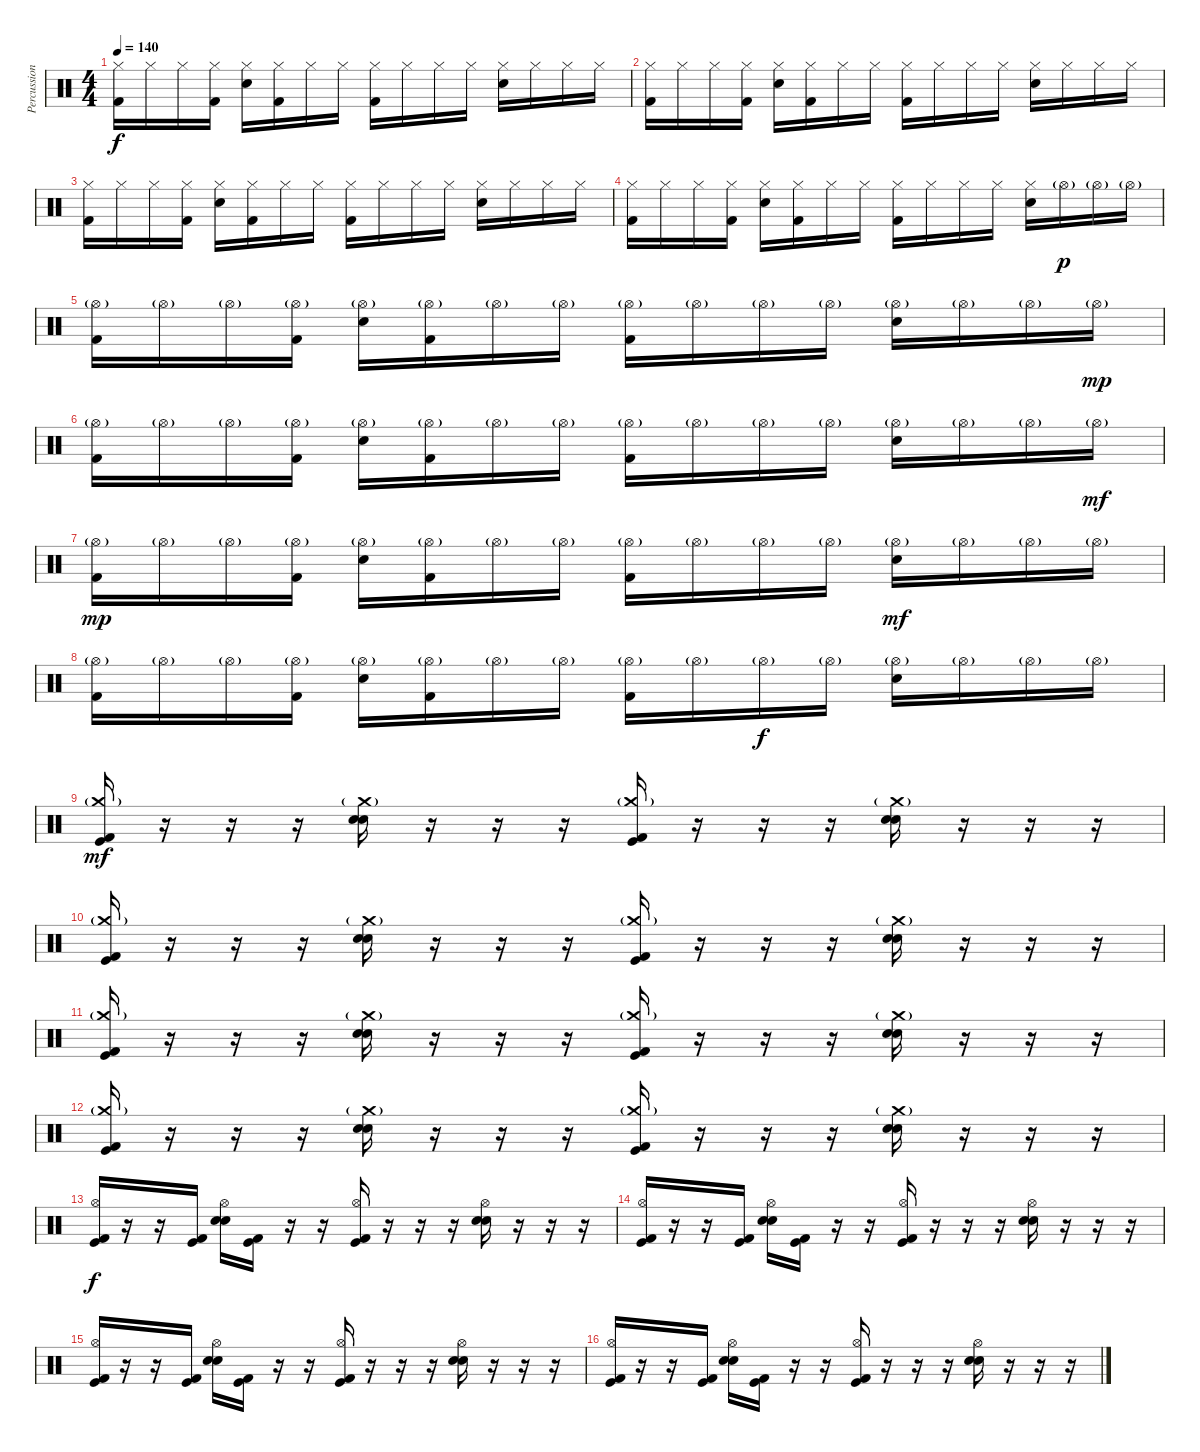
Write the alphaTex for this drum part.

\track ("Percussion" "Percussion") {instrument percussion}
\staff {score}
\articulation defaults
\ts (4 4)
\tempo 140
\clef neutral
\ks c
("Hi-Hat (closed)" "Kick (hit) 2").16{dy f} "Hi-Hat (closed)".16 "Hi-Hat (closed)".16 ("Hi-Hat (closed)" "Kick (hit) 2").16 ("Hi-Hat (closed)" "Electric Snare (hit)").16 ("Hi-Hat (closed)" "Kick (hit) 2").16 "Hi-Hat (closed)".16 "Hi-Hat (closed)".16 ("Hi-Hat (closed)" "Kick (hit) 2").16 "Hi-Hat (closed)".16 "Hi-Hat (closed)".16 "Hi-Hat (closed)".16 ("Hi-Hat (closed)" "Electric Snare (hit)").16 "Hi-Hat (closed)".16 "Hi-Hat (closed)".16 "Hi-Hat (closed)".16 |
("Hi-Hat (closed)" "Kick (hit) 2").16 "Hi-Hat (closed)".16 "Hi-Hat (closed)".16 ("Hi-Hat (closed)" "Kick (hit) 2").16 ("Hi-Hat (closed)" "Electric Snare (hit)").16 ("Hi-Hat (closed)" "Kick (hit) 2").16 "Hi-Hat (closed)".16 "Hi-Hat (closed)".16 ("Hi-Hat (closed)" "Kick (hit) 2").16 "Hi-Hat (closed)".16 "Hi-Hat (closed)".16 "Hi-Hat (closed)".16 ("Hi-Hat (closed)" "Electric Snare (hit)").16 "Hi-Hat (closed)".16 "Hi-Hat (closed)".16 "Hi-Hat (closed)".16 |
("Hi-Hat (closed)" "Kick (hit) 2").16 "Hi-Hat (closed)".16 "Hi-Hat (closed)".16 ("Hi-Hat (closed)" "Kick (hit) 2").16 ("Hi-Hat (closed)" "Electric Snare (hit)").16 ("Hi-Hat (closed)" "Kick (hit) 2").16 "Hi-Hat (closed)".16 "Hi-Hat (closed)".16 ("Hi-Hat (closed)" "Kick (hit) 2").16 "Hi-Hat (closed)".16 "Hi-Hat (closed)".16 "Hi-Hat (closed)".16 ("Hi-Hat (closed)" "Electric Snare (hit)").16 "Hi-Hat (closed)".16 "Hi-Hat (closed)".16 "Hi-Hat (closed)".16 |
("Hi-Hat (closed)" "Kick (hit) 2").16 "Hi-Hat (closed)".16 "Hi-Hat (closed)".16 ("Hi-Hat (closed)" "Kick (hit) 2").16 ("Hi-Hat (closed)" "Electric Snare (hit)").16 ("Hi-Hat (closed)" "Kick (hit) 2").16 "Hi-Hat (closed)".16 "Hi-Hat (closed)".16 ("Hi-Hat (closed)" "Kick (hit) 2").16 "Hi-Hat (closed)".16 "Hi-Hat (closed)".16 "Hi-Hat (closed)".16 ("Hi-Hat (closed)" "Electric Snare (hit)").16 "Hi-Hat (open)"{g}.16{dy p} "Hi-Hat (open)"{g}.16 "Hi-Hat (open)"{g}.16 |
("Hi-Hat (open)"{g} "Kick (hit) 2").16 "Hi-Hat (open)"{g}.16 "Hi-Hat (open)"{g}.16 ("Hi-Hat (open)"{g} "Kick (hit) 2").16 ("Hi-Hat (open)"{g} "Electric Snare (hit)").16 ("Hi-Hat (open)"{g} "Kick (hit) 2").16 "Hi-Hat (open)"{g}.16 "Hi-Hat (open)"{g}.16 ("Hi-Hat (open)"{g} "Kick (hit) 2").16 "Hi-Hat (open)"{g}.16 "Hi-Hat (open)"{g}.16 "Hi-Hat (open)"{g}.16 ("Hi-Hat (open)"{g} "Electric Snare (hit)").16 "Hi-Hat (open)"{g}.16 "Hi-Hat (open)"{g}.16 "Hi-Hat (open)"{g}.16{dy mp} |
("Hi-Hat (open)"{g} "Kick (hit) 2").16 "Hi-Hat (open)"{g}.16 "Hi-Hat (open)"{g}.16 ("Hi-Hat (open)"{g} "Kick (hit) 2").16 ("Hi-Hat (open)"{g} "Electric Snare (hit)").16 ("Hi-Hat (open)"{g} "Kick (hit) 2").16 "Hi-Hat (open)"{g}.16 "Hi-Hat (open)"{g}.16 ("Hi-Hat (open)"{g} "Kick (hit) 2").16 "Hi-Hat (open)"{g}.16 "Hi-Hat (open)"{g}.16 "Hi-Hat (open)"{g}.16 ("Hi-Hat (open)"{g} "Electric Snare (hit)").16 "Hi-Hat (open)"{g}.16 "Hi-Hat (open)"{g}.16 "Hi-Hat (open)"{g}.16{dy mf} |
("Hi-Hat (open)"{g} "Kick (hit) 2").16{dy mp} "Hi-Hat (open)"{g}.16 "Hi-Hat (open)"{g}.16 ("Hi-Hat (open)"{g} "Kick (hit) 2").16 ("Hi-Hat (open)"{g} "Electric Snare (hit)").16 ("Hi-Hat (open)"{g} "Kick (hit) 2").16 "Hi-Hat (open)"{g}.16 "Hi-Hat (open)"{g}.16 ("Hi-Hat (open)"{g} "Kick (hit) 2").16 "Hi-Hat (open)"{g}.16 "Hi-Hat (open)"{g}.16 "Hi-Hat (open)"{g}.16 ("Hi-Hat (open)"{g} "Electric Snare (hit)").16{dy mf} "Hi-Hat (open)"{g}.16 "Hi-Hat (open)"{g}.16 "Hi-Hat (open)"{g}.16 |
("Hi-Hat (open)"{g} "Kick (hit) 2").16 "Hi-Hat (open)"{g}.16 "Hi-Hat (open)"{g}.16 ("Hi-Hat (open)"{g} "Kick (hit) 2").16 ("Hi-Hat (open)"{g} "Electric Snare (hit)").16 ("Hi-Hat (open)"{g} "Kick (hit) 2").16 "Hi-Hat (open)"{g}.16 "Hi-Hat (open)"{g}.16 ("Hi-Hat (open)"{g} "Kick (hit) 2").16 "Hi-Hat (open)"{g}.16 "Hi-Hat (open)"{g}.16{dy f} "Hi-Hat (open)"{g}.16 ("Hi-Hat (open)"{g} "Electric Snare (hit)").16 "Hi-Hat (open)"{g}.16 "Hi-Hat (open)"{g}.16 "Hi-Hat (open)"{g}.16 |
("Crash medium (hit)"{g} "Kick (hit)" "Kick (hit) 2").16{dy mf} r.16 r.16 r.16 ("Crash medium (hit)"{g} "Electric Snare (hit)" "Electric Snare (hit)").16 r.16 r.16 r.16 ("Crash medium (hit)"{g} "Kick (hit)" "Kick (hit) 2").16 r.16 r.16 r.16 ("Crash medium (hit)"{g} "Electric Snare (hit)" "Electric Snare (hit)").16 r.16 r.16 r.16 |
("Crash medium (hit)"{g} "Kick (hit)" "Kick (hit) 2").16 r.16 r.16 r.16 ("Crash medium (hit)"{g} "Electric Snare (hit)" "Electric Snare (hit)").16 r.16 r.16 r.16 ("Crash medium (hit)"{g} "Kick (hit)" "Kick (hit) 2").16 r.16 r.16 r.16 ("Crash medium (hit)"{g} "Electric Snare (hit)" "Electric Snare (hit)").16 r.16 r.16 r.16 |
("Crash medium (hit)"{g} "Kick (hit)" "Kick (hit) 2").16 r.16 r.16 r.16 ("Crash medium (hit)"{g} "Electric Snare (hit)" "Electric Snare (hit)").16 r.16 r.16 r.16 ("Crash medium (hit)"{g} "Kick (hit)" "Kick (hit) 2").16 r.16 r.16 r.16 ("Crash medium (hit)"{g} "Electric Snare (hit)" "Electric Snare (hit)").16 r.16 r.16 r.16 |
("Crash medium (hit)"{g} "Kick (hit)" "Kick (hit) 2").16 r.16 r.16 r.16 ("Crash medium (hit)"{g} "Electric Snare (hit)" "Electric Snare (hit)").16 r.16 r.16 r.16 ("Crash medium (hit)"{g} "Kick (hit)" "Kick (hit) 2").16 r.16 r.16 r.16 ("Crash medium (hit)"{g} "Electric Snare (hit)" "Electric Snare (hit)").16 r.16 r.16 r.16 |
("Hi-Hat (open)" "Kick (hit)" "Kick (hit) 2").16{dy f} r.16 r.16 ("Kick (hit)" "Kick (hit) 2").16 ("Hi-Hat (open)" "Electric Snare (hit)" "Electric Snare (hit)").16 ("Kick (hit)" "Kick (hit) 2").16 r.16 r.16 ("Hi-Hat (open)" "Kick (hit)" "Kick (hit) 2").16 r.16 r.16 r.16 ("Hi-Hat (open)" "Electric Snare (hit)" "Electric Snare (hit)").16 r.16 r.16 r.16 |
("Hi-Hat (open)" "Kick (hit)" "Kick (hit) 2").16 r.16 r.16 ("Kick (hit)" "Kick (hit) 2").16 ("Hi-Hat (open)" "Electric Snare (hit)" "Electric Snare (hit)").16 ("Kick (hit)" "Kick (hit) 2").16 r.16 r.16 ("Hi-Hat (open)" "Kick (hit)" "Kick (hit) 2").16 r.16 r.16 r.16 ("Hi-Hat (open)" "Electric Snare (hit)" "Electric Snare (hit)").16 r.16 r.16 r.16 |
("Hi-Hat (open)" "Kick (hit)" "Kick (hit) 2").16 r.16 r.16 ("Kick (hit)" "Kick (hit) 2").16 ("Hi-Hat (open)" "Electric Snare (hit)" "Electric Snare (hit)").16 ("Kick (hit)" "Kick (hit) 2").16 r.16 r.16 ("Hi-Hat (open)" "Kick (hit)" "Kick (hit) 2").16 r.16 r.16 r.16 ("Hi-Hat (open)" "Electric Snare (hit)" "Electric Snare (hit)").16 r.16 r.16 r.16 |
("Hi-Hat (open)" "Kick (hit)" "Kick (hit) 2").16 r.16 r.16 ("Kick (hit)" "Kick (hit) 2").16 ("Hi-Hat (open)" "Electric Snare (hit)" "Electric Snare (hit)").16 ("Kick (hit)" "Kick (hit) 2").16 r.16 r.16 ("Hi-Hat (open)" "Kick (hit)" "Kick (hit) 2").16 r.16 r.16 r.16 ("Hi-Hat (open)" "Electric Snare (hit)" "Electric Snare (hit)").16 r.16 r.16 r.16
